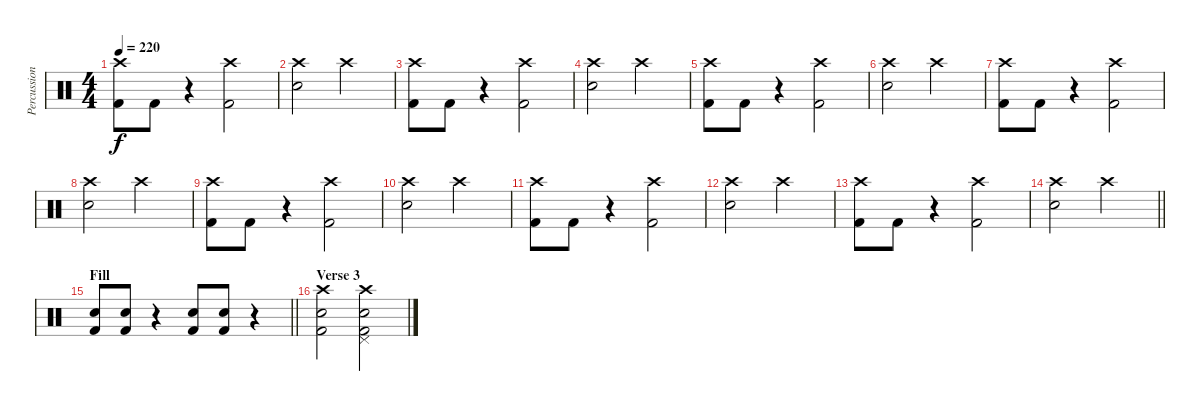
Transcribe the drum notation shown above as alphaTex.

\track ("Percussion" "Percussion") {instrument percussion}
\staff {score}
\articulation defaults
\ts (4 4)
\tempo 220
\clef neutral
\ks c
("Crash high (hit)" "Kick (hit) 2").8{dy f} "Kick (hit) 2".8 r.4 ("Crash high (hit)" "Kick (hit) 2").2 |
("Crash high (hit)" "Snare (hit) 2").2 "Crash high (hit)".2 |
("Crash high (hit)" "Kick (hit) 2").8 "Kick (hit) 2".8 r.4 ("Crash high (hit)" "Kick (hit) 2").2 |
("Crash high (hit)" "Snare (hit) 2").2 "Crash high (hit)".2 |
("Crash high (hit)" "Kick (hit) 2").8 "Kick (hit) 2".8 r.4 ("Crash high (hit)" "Kick (hit) 2").2 |
("Crash high (hit)" "Snare (hit) 2").2 "Crash high (hit)".2 |
("Crash high (hit)" "Kick (hit) 2").8 "Kick (hit) 2".8 r.4 ("Crash high (hit)" "Kick (hit) 2").2 |
("Crash high (hit)" "Snare (hit) 2").2 "Crash high (hit)".2 |
("Crash high (hit)" "Kick (hit) 2").8 "Kick (hit) 2".8 r.4 ("Crash high (hit)" "Kick (hit) 2").2 |
("Crash high (hit)" "Snare (hit) 2").2 "Crash high (hit)".2 |
("Crash high (hit)" "Kick (hit) 2").8 "Kick (hit) 2".8 r.4 ("Crash high (hit)" "Kick (hit) 2").2 |
("Crash high (hit)" "Snare (hit) 2").2 "Crash high (hit)".2 |
("Crash high (hit)" "Kick (hit) 2").8 "Kick (hit) 2".8 r.4 ("Crash high (hit)" "Kick (hit) 2").2 |
\barLineRight lightlight
("Crash high (hit)" "Snare (hit) 2").2 "Crash high (hit)".2 |
\section ("" "Fill")
\barLineRight lightlight
("Snare (hit) 2" "Kick (hit) 2").8 ("Snare (hit) 2" "Kick (hit) 2").8 r.4 ("Snare (hit) 2" "Kick (hit) 2").8 ("Snare (hit) 2" "Kick (hit) 2").8 r.4 |
\section ("" "Verse 3")
("Crash high (hit)" "Snare (hit) 2" "Kick (hit) 2").2 ("Crash high (hit)" "Snare (hit) 2" "Pedal Hi-Hat (hit)" "Kick (hit) 2").2
